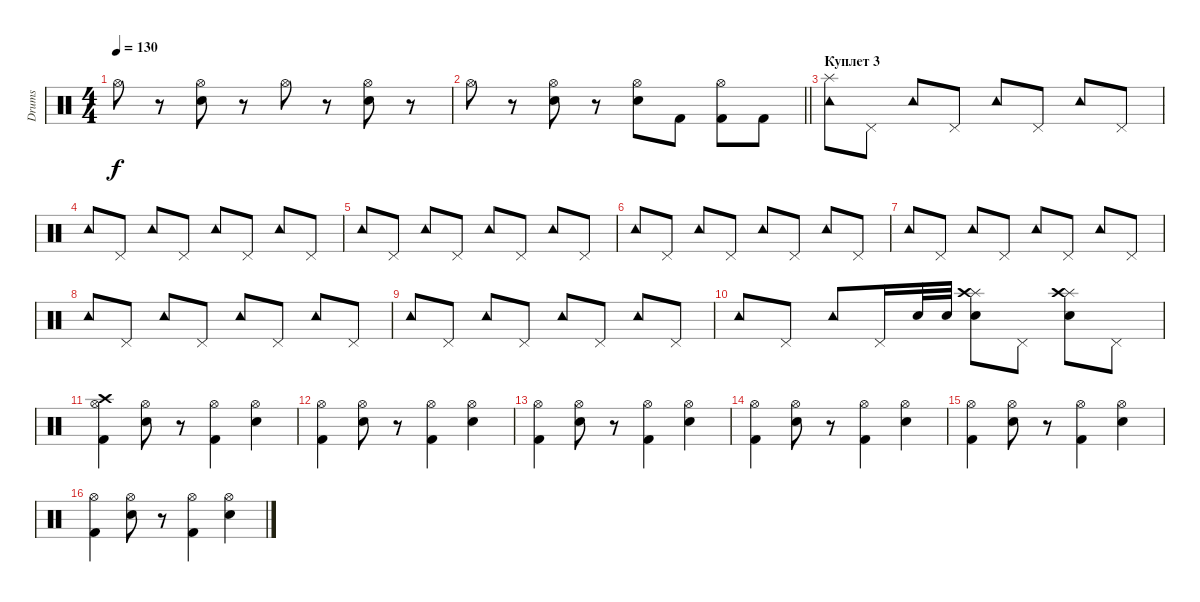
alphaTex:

\track ("Drums" "Drums") {instrument percussion}
\staff {score}
\articulation defaults
\ts (4 4)
\tempo 130
\clef neutral
\ks c "Hi-Hat (open)".8{dy f}
r.8 ("Snare (hit) 2" "Hi-Hat (open)").8 r.8 "Hi-Hat (open)".8 r.8 ("Snare (hit) 2" "Hi-Hat (open)").8 r.8 |
\barLineRight lightlight "Hi-Hat (open)".8
r.8 ("Snare (hit) 2" "Hi-Hat (open)").8 r.8 ("Snare (hit) 2" "Hi-Hat (open)").8 "Kick (hit) 2".8 ("Kick (hit) 2" "Hi-Hat (open)").8 "Kick (hit) 2".8 |
\section ("" "Куплет 3")
("Splash (hit)" "Tambourine (hit)").8 "Pedal Hi-Hat (hit)".8 "Tambourine (hit)".8 "Pedal Hi-Hat (hit)".8 "Tambourine (hit)".8 "Pedal Hi-Hat (hit)".8 "Tambourine (hit)".8 "Pedal Hi-Hat (hit)".8 |
"Tambourine (hit)".8 "Pedal Hi-Hat (hit)".8 "Tambourine (hit)".8 "Pedal Hi-Hat (hit)".8 "Tambourine (hit)".8 "Pedal Hi-Hat (hit)".8 "Tambourine (hit)".8 "Pedal Hi-Hat (hit)".8 |
"Tambourine (hit)".8 "Pedal Hi-Hat (hit)".8 "Tambourine (hit)".8 "Pedal Hi-Hat (hit)".8 "Tambourine (hit)".8 "Pedal Hi-Hat (hit)".8 "Tambourine (hit)".8 "Pedal Hi-Hat (hit)".8 |
"Tambourine (hit)".8 "Pedal Hi-Hat (hit)".8 "Tambourine (hit)".8 "Pedal Hi-Hat (hit)".8 "Tambourine (hit)".8 "Pedal Hi-Hat (hit)".8 "Tambourine (hit)".8 "Pedal Hi-Hat (hit)".8 |
"Tambourine (hit)".8 "Pedal Hi-Hat (hit)".8 "Tambourine (hit)".8 "Pedal Hi-Hat (hit)".8 "Tambourine (hit)".8 "Pedal Hi-Hat (hit)".8 "Tambourine (hit)".8 "Pedal Hi-Hat (hit)".8 |
"Tambourine (hit)".8 "Pedal Hi-Hat (hit)".8 "Tambourine (hit)".8 "Pedal Hi-Hat (hit)".8 "Tambourine (hit)".8 "Pedal Hi-Hat (hit)".8 "Tambourine (hit)".8 "Pedal Hi-Hat (hit)".8 |
"Tambourine (hit)".8 "Pedal Hi-Hat (hit)".8 "Tambourine (hit)".8 "Pedal Hi-Hat (hit)".8 "Tambourine (hit)".8 "Pedal Hi-Hat (hit)".8 "Tambourine (hit)".8 "Pedal Hi-Hat (hit)".8 |
"Tambourine (hit)".8 "Pedal Hi-Hat (hit)".8 "Tambourine (hit)".8 "Pedal Hi-Hat (hit)".16 "Snare (hit) 2".32 "Snare (hit) 2".32 ("Splash (hit)" "Crash high (hit)" "Electric Snare (hit)").8 "Pedal Hi-Hat (hit)".8 ("Splash (hit)" "Crash high (hit)" "Snare (hit) 2").8 "Pedal Hi-Hat (hit)".8 |
("Crash high (hit)" "Kick (hit) 2" "Hi-Hat (open)").4 ("Snare (hit) 2" "Hi-Hat (open)").8 r.8 ("Kick (hit) 2" "Hi-Hat (open)").4 ("Snare (hit) 2" "Hi-Hat (open)").4 |
("Kick (hit) 2" "Hi-Hat (open)").4 ("Snare (hit) 2" "Hi-Hat (open)").8 r.8 ("Kick (hit) 2" "Hi-Hat (open)").4 ("Snare (hit) 2" "Hi-Hat (open)").4 |
("Kick (hit) 2" "Hi-Hat (open)").4 ("Snare (hit) 2" "Hi-Hat (open)").8 r.8 ("Kick (hit) 2" "Hi-Hat (open)").4 ("Snare (hit) 2" "Hi-Hat (open)").4 |
("Kick (hit) 2" "Hi-Hat (open)").4 ("Snare (hit) 2" "Hi-Hat (open)").8 r.8 ("Kick (hit) 2" "Hi-Hat (open)").4 ("Snare (hit) 2" "Hi-Hat (open)").4 |
("Kick (hit) 2" "Hi-Hat (open)").4 ("Snare (hit) 2" "Hi-Hat (open)").8 r.8 ("Kick (hit) 2" "Hi-Hat (open)").4 ("Snare (hit) 2" "Hi-Hat (open)").4 |
("Kick (hit) 2" "Hi-Hat (open)").4 ("Snare (hit) 2" "Hi-Hat (open)").8 r.8 ("Kick (hit) 2" "Hi-Hat (open)").4 ("Snare (hit) 2" "Hi-Hat (open)").4
